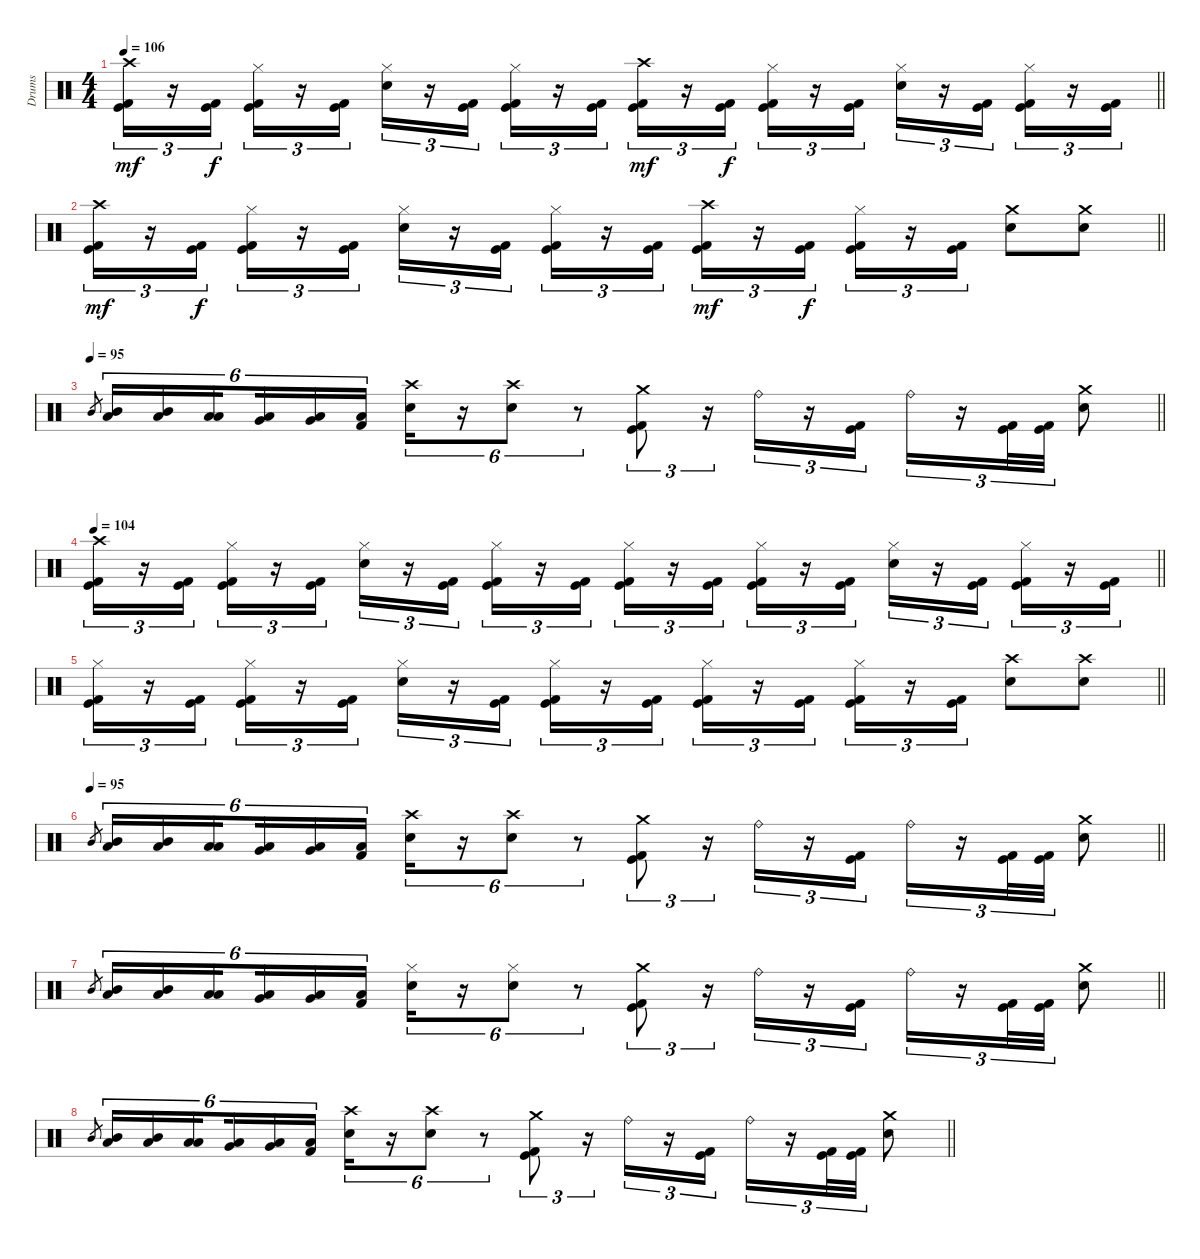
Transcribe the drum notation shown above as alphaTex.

\track ("Drums" "Drums") {instrument percussion}
\staff {score}
\articulation defaults
\ts (4 4)
\tempo 106
\clef neutral
\barLineRight lightlight
\ks c
("Crash high (hit)" "Kick (hit)" "Kick (hit) 2").16{tu (3 2) dy mf} r.16{tu (3 2)} ("Kick (hit)" "Kick (hit) 2").16{tu (3 2) dy f} ("Hi-Hat (closed)" "Kick (hit)" "Kick (hit) 2").16{tu (3 2)} r.16{tu (3 2)} ("Kick (hit)" "Kick (hit) 2").16{tu (3 2)} ("Hi-Hat (closed)" "Electric Snare (hit)").16{tu (3 2)} r.16{tu (3 2)} ("Kick (hit)" "Kick (hit) 2").16{tu (3 2)} ("Hi-Hat (closed)" "Kick (hit)" "Kick (hit) 2").16{tu (3 2)} r.16{tu (3 2)} ("Kick (hit)" "Kick (hit) 2").16{tu (3 2)} ("Crash high (hit)" "Kick (hit)" "Kick (hit) 2").16{tu (3 2) dy mf} r.16{tu (3 2)} ("Kick (hit)" "Kick (hit) 2").16{tu (3 2) dy f} ("Hi-Hat (closed)" "Kick (hit)" "Kick (hit) 2").16{tu (3 2)} r.16{tu (3 2)} ("Kick (hit)" "Kick (hit) 2").16{tu (3 2)} ("Hi-Hat (closed)" "Electric Snare (hit)").16{tu (3 2)} r.16{tu (3 2)} ("Kick (hit)" "Kick (hit) 2").16{tu (3 2)} ("Hi-Hat (closed)" "Kick (hit)" "Kick (hit) 2").16{tu (3 2)} r.16{tu (3 2)} ("Kick (hit)" "Kick (hit) 2").16{tu (3 2)} |
\barLineRight lightlight
("Crash high (hit)" "Kick (hit)" "Kick (hit) 2").16{tu (3 2) dy mf} r.16{tu (3 2)} ("Kick (hit)" "Kick (hit) 2").16{tu (3 2) dy f} ("Hi-Hat (closed)" "Kick (hit)" "Kick (hit) 2").16{tu (3 2)} r.16{tu (3 2)} ("Kick (hit)" "Kick (hit) 2").16{tu (3 2)} ("Hi-Hat (closed)" "Electric Snare (hit)").16{tu (3 2)} r.16{tu (3 2)} ("Kick (hit)" "Kick (hit) 2").16{tu (3 2)} ("Hi-Hat (closed)" "Kick (hit)" "Kick (hit) 2").16{tu (3 2)} r.16{tu (3 2)} ("Kick (hit)" "Kick (hit) 2").16{tu (3 2)} ("Crash high (hit)" "Kick (hit)" "Kick (hit) 2").16{tu (3 2) dy mf} r.16{tu (3 2)} ("Kick (hit)" "Kick (hit) 2").16{tu (3 2) dy f} ("Hi-Hat (closed)" "Kick (hit)" "Kick (hit) 2").16{tu (3 2)} r.16{tu (3 2)} ("Kick (hit)" "Kick (hit) 2").16{tu (3 2)} ("Crash medium (hit)" "Electric Snare (hit)").8 ("Crash medium (hit)" "Electric Snare (hit)").8 |
\tempo 95
\barLineRight lightlight "Mid Tom (hit)".8{gr}
("Mid Tom (hit)" "Low Tom (hit)").16{tu (6 4)} ("Mid Tom (hit)" "Low Tom (hit)").16{tu (6 4)} ("Low Tom (hit)" "Low Tom (hit)").16{tu (6 4) beam splitsecondary} ("Very Low Tom (hit)" "Low Tom (hit)").16{tu (6 4)} ("Very Low Tom (hit)" "Low Tom (hit)").16{tu (6 4)} ("Low Floor Tom (hit)" "Kick (hit) 2").16{tu (6 4)} ("Crash high (hit)" "Electric Snare (hit)").16{tu (6 4)} r.16{tu (6 4)} ("Crash high (hit)" "Electric Snare (hit)").8{tu (6 4)} r.8{tu (6 4)} ("Crash medium (hit)" "Kick (hit)" "Kick (hit) 2").8{tu (3 2)} r.16{tu (3 2)} "Ride (bell)".16{tu (3 2)} r.16{tu (3 2)} ("Kick (hit)" "Kick (hit) 2").16{tu (3 2)} "Ride (bell)".16{tu (3 2)} r.16{tu (3 2)} ("Kick (hit)" "Kick (hit) 2").32{tu (3 2)} ("Kick (hit)" "Kick (hit) 2").32{tu (3 2)} ("Crash medium (hit)" "Electric Snare (hit)").8 |
\tempo 104
\barLineRight lightlight
("Crash high (hit)" "Kick (hit)" "Kick (hit) 2").16{tu (3 2)} r.16{tu (3 2)} ("Kick (hit)" "Kick (hit) 2").16{tu (3 2)} ("Hi-Hat (closed)" "Kick (hit)" "Kick (hit) 2").16{tu (3 2)} r.16{tu (3 2)} ("Kick (hit)" "Kick (hit) 2").16{tu (3 2)} ("Hi-Hat (closed)" "Electric Snare (hit)").16{tu (3 2)} r.16{tu (3 2)} ("Kick (hit)" "Kick (hit) 2").16{tu (3 2)} ("Hi-Hat (closed)" "Kick (hit)" "Kick (hit) 2").16{tu (3 2)} r.16{tu (3 2)} ("Kick (hit)" "Kick (hit) 2").16{tu (3 2)} ("Hi-Hat (closed)" "Kick (hit)" "Kick (hit) 2").16{tu (3 2)} r.16{tu (3 2)} ("Kick (hit)" "Kick (hit) 2").16{tu (3 2)} ("Hi-Hat (closed)" "Kick (hit)" "Kick (hit) 2").16{tu (3 2)} r.16{tu (3 2)} ("Kick (hit)" "Kick (hit) 2").16{tu (3 2)} ("Hi-Hat (closed)" "Electric Snare (hit)").16{tu (3 2)} r.16{tu (3 2)} ("Kick (hit)" "Kick (hit) 2").16{tu (3 2)} ("Hi-Hat (closed)" "Kick (hit)" "Kick (hit) 2").16{tu (3 2)} r.16{tu (3 2)} ("Kick (hit)" "Kick (hit) 2").16{tu (3 2)} |
\barLineRight lightlight
("Hi-Hat (closed)" "Kick (hit)" "Kick (hit) 2").16{tu (3 2)} r.16{tu (3 2)} ("Kick (hit)" "Kick (hit) 2").16{tu (3 2)} ("Hi-Hat (closed)" "Kick (hit)" "Kick (hit) 2").16{tu (3 2)} r.16{tu (3 2)} ("Kick (hit)" "Kick (hit) 2").16{tu (3 2)} ("Hi-Hat (closed)" "Electric Snare (hit)").16{tu (3 2)} r.16{tu (3 2)} ("Kick (hit)" "Kick (hit) 2").16{tu (3 2)} ("Hi-Hat (closed)" "Kick (hit)" "Kick (hit) 2").16{tu (3 2)} r.16{tu (3 2)} ("Kick (hit)" "Kick (hit) 2").16{tu (3 2)} ("Hi-Hat (closed)" "Kick (hit)" "Kick (hit) 2").16{tu (3 2)} r.16{tu (3 2)} ("Kick (hit)" "Kick (hit) 2").16{tu (3 2)} ("Hi-Hat (closed)" "Kick (hit)" "Kick (hit) 2").16{tu (3 2)} r.16{tu (3 2)} ("Kick (hit)" "Kick (hit) 2").16{tu (3 2)} ("Crash high (hit)" "Electric Snare (hit)").8 ("Crash high (hit)" "Electric Snare (hit)").8 |
\tempo 95
\barLineRight lightlight "Mid Tom (hit)".8{gr}
("Mid Tom (hit)" "Low Tom (hit)").16{tu (6 4)} ("Mid Tom (hit)" "Low Tom (hit)").16{tu (6 4)} ("Low Tom (hit)" "Low Tom (hit)").16{tu (6 4) beam splitsecondary} ("Very Low Tom (hit)" "Low Tom (hit)").16{tu (6 4)} ("Very Low Tom (hit)" "Low Tom (hit)").16{tu (6 4)} ("Low Floor Tom (hit)" "Kick (hit) 2").16{tu (6 4)} ("Crash high (hit)" "Electric Snare (hit)").16{tu (6 4)} r.16{tu (6 4)} ("Crash high (hit)" "Electric Snare (hit)").8{tu (6 4)} r.8{tu (6 4)} ("Crash medium (hit)" "Kick (hit)" "Kick (hit) 2").8{tu (3 2)} r.16{tu (3 2)} "Ride (bell)".16{tu (3 2)} r.16{tu (3 2)} ("Kick (hit)" "Kick (hit) 2").16{tu (3 2)} "Ride (bell)".16{tu (3 2)} r.16{tu (3 2)} ("Kick (hit)" "Kick (hit) 2").32{tu (3 2)} ("Kick (hit)" "Kick (hit) 2").32{tu (3 2)} ("Crash medium (hit)" "Electric Snare (hit)").8 |
\barLineRight lightlight "Mid Tom (hit)".8{gr}
("Mid Tom (hit)" "Low Tom (hit)").16{tu (6 4)} ("Mid Tom (hit)" "Low Tom (hit)").16{tu (6 4)} ("Low Tom (hit)" "Low Tom (hit)").16{tu (6 4) beam splitsecondary} ("Very Low Tom (hit)" "Low Tom (hit)").16{tu (6 4)} ("Very Low Tom (hit)" "Low Tom (hit)").16{tu (6 4)} ("Low Floor Tom (hit)" "Kick (hit) 2").16{tu (6 4)} ("Hi-Hat (closed)" "Electric Snare (hit)").16{tu (6 4)} r.16{tu (6 4)} ("Hi-Hat (closed)" "Electric Snare (hit)").8{tu (6 4)} r.8{tu (6 4)} ("Crash medium (hit)" "Kick (hit)" "Kick (hit) 2").8{tu (3 2)} r.16{tu (3 2)} "Ride (bell)".16{tu (3 2)} r.16{tu (3 2)} ("Kick (hit)" "Kick (hit) 2").16{tu (3 2)} "Ride (bell)".16{tu (3 2)} r.16{tu (3 2)} ("Kick (hit)" "Kick (hit) 2").32{tu (3 2)} ("Kick (hit)" "Kick (hit) 2").32{tu (3 2)} ("Crash medium (hit)" "Electric Snare (hit)").8 |
\barLineRight lightlight "Mid Tom (hit)".8{gr}
("Mid Tom (hit)" "Low Tom (hit)").16{tu (6 4)} ("Mid Tom (hit)" "Low Tom (hit)").16{tu (6 4)} ("Low Tom (hit)" "Low Tom (hit)").16{tu (6 4) beam splitsecondary} ("Very Low Tom (hit)" "Low Tom (hit)").16{tu (6 4)} ("Very Low Tom (hit)" "Low Tom (hit)").16{tu (6 4)} ("Low Floor Tom (hit)" "Kick (hit) 2").16{tu (6 4)} ("Crash high (hit)" "Electric Snare (hit)").16{tu (6 4)} r.16{tu (6 4)} ("Crash high (hit)" "Electric Snare (hit)").8{tu (6 4)} r.8{tu (6 4)} ("Crash medium (hit)" "Kick (hit)" "Kick (hit) 2").8{tu (3 2)} r.16{tu (3 2)} "Ride (bell)".16{tu (3 2)} r.16{tu (3 2)} ("Kick (hit)" "Kick (hit) 2").16{tu (3 2)} "Ride (bell)".16{tu (3 2)} r.16{tu (3 2)} ("Kick (hit)" "Kick (hit) 2").32{tu (3 2)} ("Kick (hit)" "Kick (hit) 2").32{tu (3 2)} ("Crash medium (hit)" "Electric Snare (hit)").8
